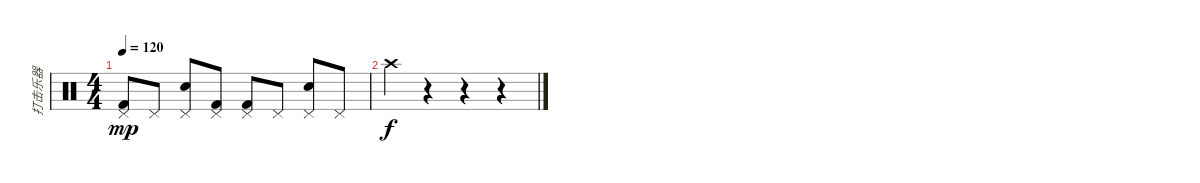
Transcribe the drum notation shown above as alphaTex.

\track ("打击乐器" "打击乐器") {instrument percussion}
\staff {score}
\articulation defaults
\ts (4 4)
\tempo 120
\clef neutral
\ks c
("Pedal Hi-Hat (hit)" "Kick (hit) 2").8{dy mp} "Pedal Hi-Hat (hit)".8 ("Pedal Hi-Hat (hit)" "Electric Snare (hit)").8 ("Pedal Hi-Hat (hit)" "Kick (hit) 2").8 ("Pedal Hi-Hat (hit)" "Kick (hit) 2").8 "Pedal Hi-Hat (hit)".8 ("Pedal Hi-Hat (hit)" "Electric Snare (hit)").8 "Pedal Hi-Hat (hit)".8 |
"Crash high (hit)".4{dy f} r.4 r.4 r.4
